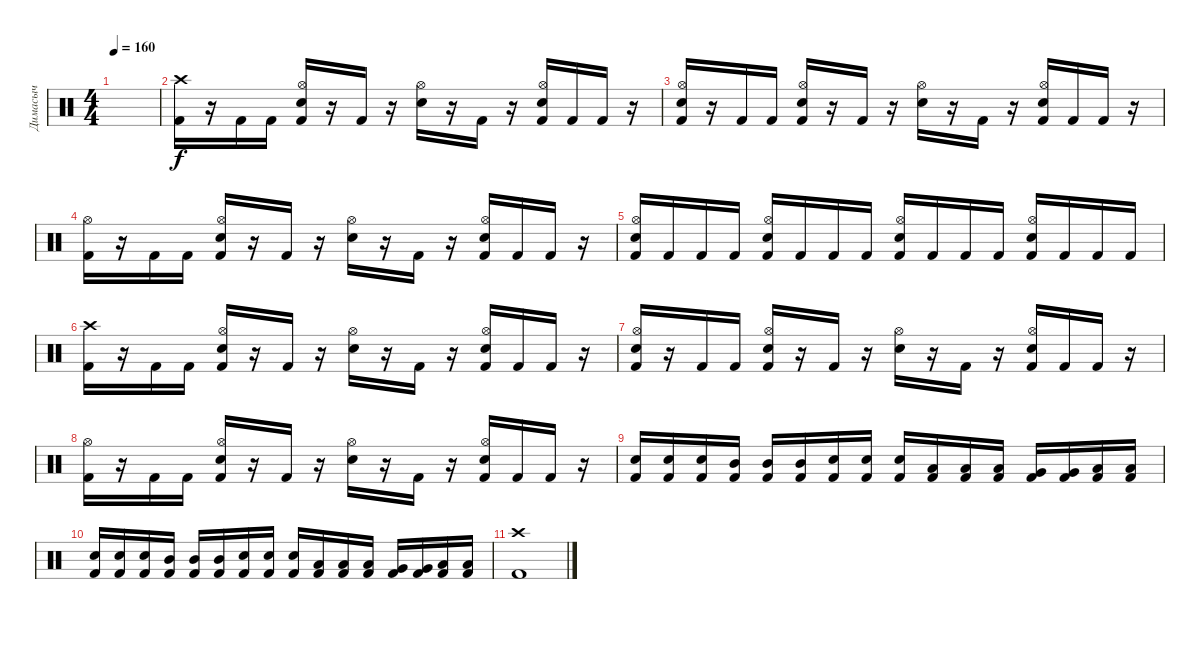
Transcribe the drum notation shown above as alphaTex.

\track ("Димасыч" "Димасыч") {instrument percussion}
\staff {score}
\articulation defaults
\ts (4 4)
\tempo 160
\clef neutral
\ks c
|
("Crash high (hit)" "Kick (hit) 2").16 r.16 "Kick (hit) 2".16 "Kick (hit) 2".16 ("Hi-Hat (open)" "Electric Snare (hit)" "Kick (hit) 2").16 r.16 "Kick (hit) 2".16 r.16 ("Hi-Hat (open)" "Electric Snare (hit)").16 r.16 "Kick (hit) 2".16 r.16 ("Hi-Hat (open)" "Electric Snare (hit)" "Kick (hit) 2").16 "Kick (hit) 2".16 "Kick (hit) 2".16 r.16 |
("Hi-Hat (open)" "Electric Snare (hit)" "Kick (hit) 2").16 r.16 "Kick (hit) 2".16 "Kick (hit) 2".16 ("Hi-Hat (open)" "Electric Snare (hit)" "Kick (hit) 2").16 r.16 "Kick (hit) 2".16 r.16 ("Hi-Hat (open)" "Electric Snare (hit)").16 r.16 "Kick (hit) 2".16 r.16 ("Hi-Hat (open)" "Electric Snare (hit)" "Kick (hit) 2").16 "Kick (hit) 2".16 "Kick (hit) 2".16 r.16 |
("Hi-Hat (open)" "Kick (hit) 2").16 r.16 "Kick (hit) 2".16 "Kick (hit) 2".16 ("Hi-Hat (open)" "Electric Snare (hit)" "Kick (hit) 2").16 r.16 "Kick (hit) 2".16 r.16 ("Hi-Hat (open)" "Electric Snare (hit)").16 r.16 "Kick (hit) 2".16 r.16 ("Hi-Hat (open)" "Electric Snare (hit)" "Kick (hit) 2").16 "Kick (hit) 2".16 "Kick (hit) 2".16 r.16 |
("Hi-Hat (open)" "Electric Snare (hit)" "Kick (hit) 2").16 "Kick (hit) 2".16 "Kick (hit) 2".16 "Kick (hit) 2".16 ("Hi-Hat (open)" "Electric Snare (hit)" "Kick (hit) 2").16 "Kick (hit) 2".16 "Kick (hit) 2".16 "Kick (hit) 2".16 ("Hi-Hat (open)" "Electric Snare (hit)" "Kick (hit) 2").16 "Kick (hit) 2".16 "Kick (hit) 2".16 "Kick (hit) 2".16 ("Hi-Hat (open)" "Electric Snare (hit)" "Kick (hit) 2").16 "Kick (hit) 2".16 "Kick (hit) 2".16 "Kick (hit) 2".16 |
("Crash high (hit)" "Kick (hit) 2").16 r.16 "Kick (hit) 2".16 "Kick (hit) 2".16 ("Hi-Hat (open)" "Electric Snare (hit)" "Kick (hit) 2").16 r.16 "Kick (hit) 2".16 r.16 ("Hi-Hat (open)" "Electric Snare (hit)").16 r.16 "Kick (hit) 2".16 r.16 ("Hi-Hat (open)" "Electric Snare (hit)" "Kick (hit) 2").16 "Kick (hit) 2".16 "Kick (hit) 2".16 r.16 |
("Hi-Hat (open)" "Electric Snare (hit)" "Kick (hit) 2").16 r.16 "Kick (hit) 2".16 "Kick (hit) 2".16 ("Hi-Hat (open)" "Electric Snare (hit)" "Kick (hit) 2").16 r.16 "Kick (hit) 2".16 r.16 ("Hi-Hat (open)" "Electric Snare (hit)").16 r.16 "Kick (hit) 2".16 r.16 ("Hi-Hat (open)" "Electric Snare (hit)" "Kick (hit) 2").16 "Kick (hit) 2".16 "Kick (hit) 2".16 r.16 |
("Hi-Hat (open)" "Kick (hit) 2").16 r.16 "Kick (hit) 2".16 "Kick (hit) 2".16 ("Hi-Hat (open)" "Electric Snare (hit)" "Kick (hit) 2").16 r.16 "Kick (hit) 2".16 r.16 ("Hi-Hat (open)" "Electric Snare (hit)").16 r.16 "Kick (hit) 2".16 r.16 ("Hi-Hat (open)" "Electric Snare (hit)" "Kick (hit) 2").16 "Kick (hit) 2".16 "Kick (hit) 2".16 r.16 |
("Electric Snare (hit)" "Kick (hit) 2").16 ("Electric Snare (hit)" "Kick (hit) 2").16 ("Electric Snare (hit)" "Kick (hit) 2").16 ("Mid Tom (hit)" "Kick (hit) 2").16 ("Mid Tom (hit)" "Kick (hit) 2").16 ("Mid Tom (hit)" "Kick (hit) 2").16 ("Electric Snare (hit)" "Kick (hit) 2").16 ("Electric Snare (hit)" "Kick (hit) 2").16 ("Electric Snare (hit)" "Kick (hit) 2").16 ("Low Tom (hit)" "Kick (hit) 2").16 ("Low Tom (hit)" "Kick (hit) 2").16 ("Low Tom (hit)" "Kick (hit) 2").16 ("Very Low Tom (hit)" "Kick (hit) 2").16 ("Very Low Tom (hit)" "Kick (hit) 2").16 ("Low Floor Tom (hit)" "Kick (hit) 2").16 ("Low Floor Tom (hit)" "Kick (hit) 2").16 |
("Electric Snare (hit)" "Kick (hit) 2").16 ("Electric Snare (hit)" "Kick (hit) 2").16 ("Electric Snare (hit)" "Kick (hit) 2").16 ("Mid Tom (hit)" "Kick (hit) 2").16 ("Mid Tom (hit)" "Kick (hit) 2").16 ("Mid Tom (hit)" "Kick (hit) 2").16 ("Electric Snare (hit)" "Kick (hit) 2").16 ("Electric Snare (hit)" "Kick (hit) 2").16 ("Electric Snare (hit)" "Kick (hit) 2").16 ("Low Tom (hit)" "Kick (hit) 2").16 ("Low Tom (hit)" "Kick (hit) 2").16 ("Low Tom (hit)" "Kick (hit) 2").16 ("Very Low Tom (hit)" "Kick (hit) 2").16 ("Very Low Tom (hit)" "Kick (hit) 2").16 ("Low Floor Tom (hit)" "Kick (hit) 2").16 ("Low Floor Tom (hit)" "Kick (hit) 2").16 |
("Crash high (hit)" "Kick (hit) 2").1
